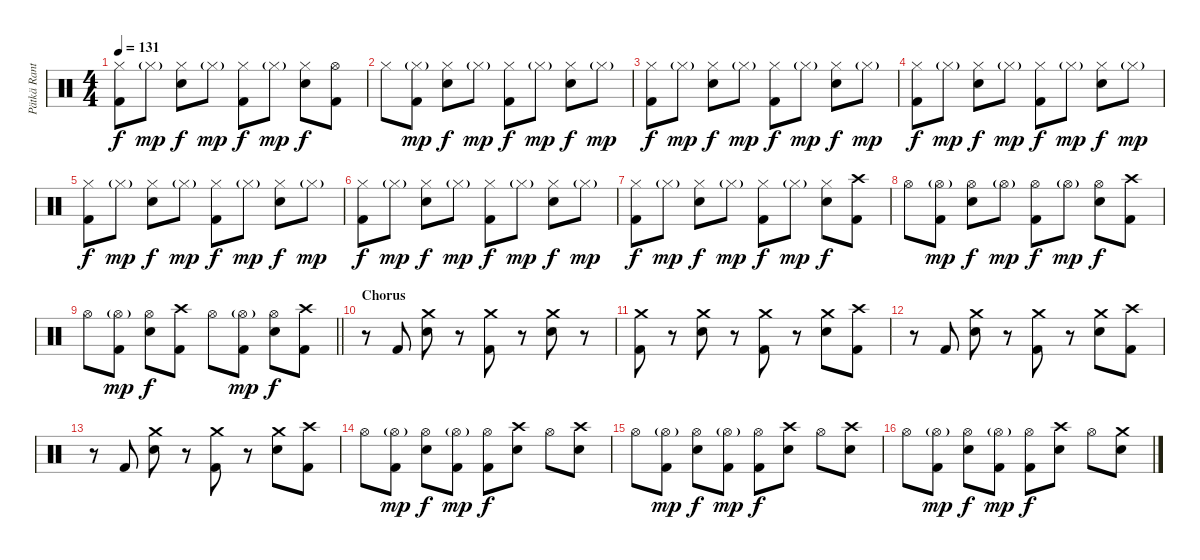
\track ("Pätkä Rantala (Drums)" "Pätkä Rant") {instrument percussion}
\staff {score}
\articulation defaults
\ts (4 4)
\tempo 131
\clef neutral
\ks c
("Hi-Hat (closed)" "Kick (hit) 2").8{dy f} "Hi-Hat (closed)"{g}.8{dy mp} ("Hi-Hat (closed)" "Snare (hit) 2").8{dy f} "Hi-Hat (closed)"{g}.8{dy mp} ("Hi-Hat (closed)" "Kick (hit) 2").8{dy f} "Hi-Hat (closed)"{g}.8{dy mp} ("Hi-Hat (closed)" "Snare (hit) 2").8{dy f} ("Hi-Hat (open)" "Kick (hit) 2").8 |
"Hi-Hat (closed)".8 ("Hi-Hat (closed)"{g} "Kick (hit) 2").8{dy mp} ("Hi-Hat (closed)" "Snare (hit) 2").8{dy f} "Hi-Hat (closed)"{g}.8{dy mp} ("Hi-Hat (closed)" "Kick (hit) 2").8{dy f} "Hi-Hat (closed)"{g}.8{dy mp} ("Hi-Hat (closed)" "Snare (hit) 2").8{dy f} "Hi-Hat (closed)"{g}.8{dy mp} |
("Hi-Hat (closed)" "Kick (hit) 2").8{dy f} "Hi-Hat (closed)"{g}.8{dy mp} ("Hi-Hat (closed)" "Snare (hit) 2").8{dy f} "Hi-Hat (closed)"{g}.8{dy mp} ("Hi-Hat (closed)" "Kick (hit) 2").8{dy f} "Hi-Hat (closed)"{g}.8{dy mp} ("Hi-Hat (closed)" "Snare (hit) 2").8{dy f} "Hi-Hat (closed)"{g}.8{dy mp} |
("Hi-Hat (closed)" "Kick (hit) 2").8{dy f} "Hi-Hat (closed)"{g}.8{dy mp} ("Hi-Hat (closed)" "Snare (hit) 2").8{dy f} "Hi-Hat (closed)"{g}.8{dy mp} ("Hi-Hat (closed)" "Kick (hit) 2").8{dy f} "Hi-Hat (closed)"{g}.8{dy mp} ("Hi-Hat (closed)" "Snare (hit) 2").8{dy f} "Hi-Hat (closed)"{g}.8{dy mp} |
("Hi-Hat (closed)" "Kick (hit) 2").8{dy f} "Hi-Hat (closed)"{g}.8{dy mp} ("Hi-Hat (closed)" "Snare (hit) 2").8{dy f} "Hi-Hat (closed)"{g}.8{dy mp} ("Hi-Hat (closed)" "Kick (hit) 2").8{dy f} "Hi-Hat (closed)"{g}.8{dy mp} ("Hi-Hat (closed)" "Snare (hit) 2").8{dy f} "Hi-Hat (closed)"{g}.8{dy mp} |
("Hi-Hat (closed)" "Kick (hit) 2").8{dy f} "Hi-Hat (closed)"{g}.8{dy mp} ("Hi-Hat (closed)" "Snare (hit) 2").8{dy f} "Hi-Hat (closed)"{g}.8{dy mp} ("Hi-Hat (closed)" "Kick (hit) 2").8{dy f} "Hi-Hat (closed)"{g}.8{dy mp} ("Hi-Hat (closed)" "Snare (hit) 2").8{dy f} "Hi-Hat (closed)"{g}.8{dy mp} |
("Hi-Hat (closed)" "Kick (hit) 2").8{dy f} "Hi-Hat (closed)"{g}.8{dy mp} ("Hi-Hat (closed)" "Snare (hit) 2").8{dy f} "Hi-Hat (closed)"{g}.8{dy mp} ("Hi-Hat (closed)" "Kick (hit) 2").8{dy f} "Hi-Hat (closed)"{g}.8{dy mp} ("Hi-Hat (closed)" "Snare (hit) 2").8{dy f} ("Crash high (hit)" "Kick (hit) 2").8 |
"Hi-Hat (open)".8 ("Hi-Hat (open)"{g} "Kick (hit) 2").8{dy mp} ("Hi-Hat (open)" "Snare (hit) 2").8{dy f} "Hi-Hat (open)"{g}.8{dy mp} ("Hi-Hat (open)" "Kick (hit) 2").8{dy f} "Hi-Hat (open)"{g}.8{dy mp} ("Hi-Hat (open)" "Snare (hit) 2").8{dy f} ("Crash high (hit)" "Kick (hit) 2").8 |
\barLineRight lightlight "Hi-Hat (open)".8
("Hi-Hat (open)"{g} "Kick (hit) 2").8{dy mp} ("Hi-Hat (open)" "Snare (hit) 2").8{dy f} ("Crash high (hit)" "Kick (hit) 2").8 "Hi-Hat (open)".8 ("Hi-Hat (open)"{g} "Kick (hit) 2").8{dy mp} ("Hi-Hat (open)" "Snare (hit) 2").8{dy f} ("Crash high (hit)" "Kick (hit) 2").8 |
\section ("" "Chorus")
r.8 "Kick (hit) 2".8 ("Crash medium (hit)" "Snare (hit) 2").8 r.8 ("Crash medium (hit)" "Kick (hit) 2").8 r.8 ("Crash medium (hit)" "Snare (hit) 2").8 r.8 |
("Crash medium (hit)" "Kick (hit) 2").8 r.8 ("Crash medium (hit)" "Snare (hit) 2").8 r.8 ("Crash medium (hit)" "Kick (hit) 2").8 r.8 ("Crash medium (hit)" "Snare (hit) 2").8 ("Crash high (hit)" "Kick (hit) 2").8 |
r.8 "Kick (hit) 2".8 ("Crash medium (hit)" "Snare (hit) 2").8 r.8 ("Crash medium (hit)" "Kick (hit) 2").8 r.8 ("Crash medium (hit)" "Snare (hit) 2").8 ("Crash high (hit)" "Kick (hit) 2").8 |
r.8 "Kick (hit) 2".8 ("Crash medium (hit)" "Snare (hit) 2").8 r.8 ("Crash medium (hit)" "Kick (hit) 2").8 r.8 ("Crash medium (hit)" "Snare (hit) 2").8 ("Crash high (hit)" "Kick (hit) 2").8 |
"Hi-Hat (open)".8 ("Hi-Hat (open)"{g} "Kick (hit) 2").8{dy mp} ("Hi-Hat (open)" "Snare (hit) 2").8{dy f} ("Hi-Hat (open)"{g} "Kick (hit) 2").8{dy mp} ("Hi-Hat (open)" "Kick (hit) 2").8{dy f} ("Crash high (hit)" "Snare (hit) 2").8 "Hi-Hat (open)".8 ("Crash high (hit)" "Snare (hit) 2").8 |
"Hi-Hat (open)".8 ("Hi-Hat (open)"{g} "Kick (hit) 2").8{dy mp} ("Hi-Hat (open)" "Snare (hit) 2").8{dy f} ("Hi-Hat (open)"{g} "Kick (hit) 2").8{dy mp} ("Hi-Hat (open)" "Kick (hit) 2").8{dy f} ("Crash high (hit)" "Snare (hit) 2").8 "Hi-Hat (open)".8 ("Crash high (hit)" "Snare (hit) 2").8 |
"Hi-Hat (open)".8 ("Hi-Hat (open)"{g} "Kick (hit) 2").8{dy mp} ("Hi-Hat (open)" "Snare (hit) 2").8{dy f} ("Hi-Hat (open)"{g} "Kick (hit) 2").8{dy mp} ("Hi-Hat (open)" "Kick (hit) 2").8{dy f} ("Crash high (hit)" "Snare (hit) 2").8 "Hi-Hat (open)".8 ("Crash medium (hit)" "Snare (hit) 2").8
